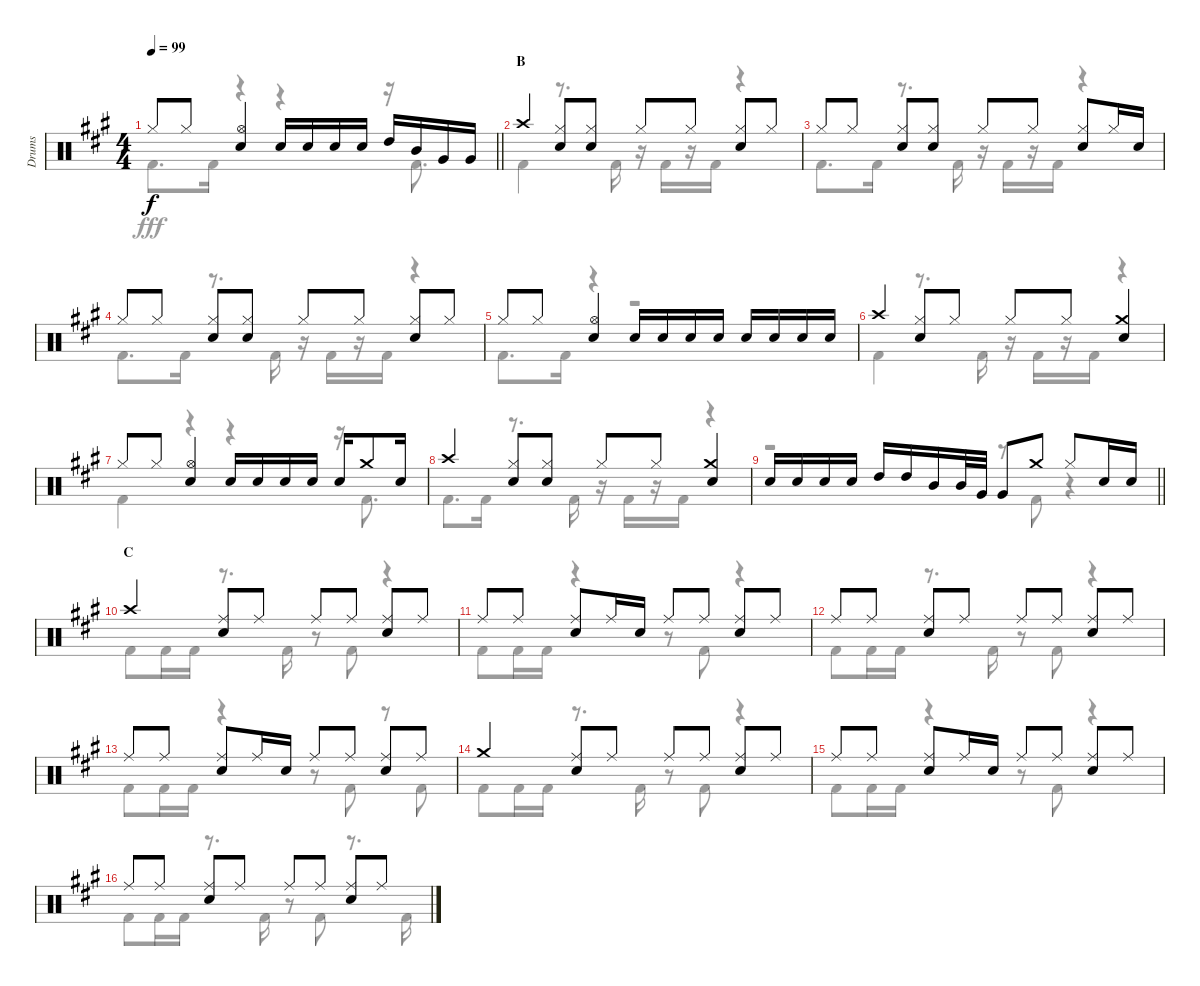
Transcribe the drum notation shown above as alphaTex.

\track ("Drums" "Drums") {instrument percussion}
\staff {score}
\articulation defaults
\voice
\ts (4 4)
\tempo 99
\clef neutral
\barLineRight lightlight
\ks a "Hi-Hat (closed)".8{dy f} "Hi-Hat (closed)".8
("Hi-Hat (open)" "Snare (hit) 2").4 "Snare (hit) 2".16 "Snare (hit) 2".16 "Snare (hit) 2".16 "Snare (hit) 2".16 "High Tom (hit)".16 "Mid Tom (hit)".16 "Very Low Tom (hit)".16 "Very Low Tom (hit)".16 |
\section ("" "B")
"Crash high (hit)".4 ("Hi-Hat (closed)" "Snare (hit) 2").8 ("Hi-Hat (closed)" "Snare (hit) 2").8 "Hi-Hat (closed)".8 "Hi-Hat (closed)".8 ("Hi-Hat (closed)" "Snare (hit) 2").8 "Hi-Hat (closed)".8 |
"Hi-Hat (closed)".8 "Hi-Hat (closed)".8 ("Hi-Hat (closed)" "Snare (hit) 2").8 ("Hi-Hat (closed)" "Snare (hit) 2").8 "Hi-Hat (closed)".8 "Hi-Hat (closed)".8 ("Hi-Hat (closed)" "Snare (hit) 2").8 "Hi-Hat (closed)".16 "Snare (hit) 2".16 |
"Hi-Hat (closed)".8 "Hi-Hat (closed)".8 ("Hi-Hat (closed)" "Snare (hit) 2").8 ("Hi-Hat (closed)" "Snare (hit) 2").8 "Hi-Hat (closed)".8 "Hi-Hat (closed)".8 ("Hi-Hat (closed)" "Snare (hit) 2").8 "Hi-Hat (closed)".8 |
"Hi-Hat (closed)".8 "Hi-Hat (closed)".8 ("Hi-Hat (open)" "Snare (hit) 2").4 "Snare (hit) 2".16 "Snare (hit) 2".16 "Snare (hit) 2".16 "Snare (hit) 2".16 "Snare (hit) 2".16 "Snare (hit) 2".16 "Snare (hit) 2".16 "Snare (hit) 2".16 |
"Crash high (hit)".4 ("Hi-Hat (closed)" "Snare (hit) 2").8 "Hi-Hat (closed)".8 "Hi-Hat (closed)".8 "Hi-Hat (closed)".8 ("Crash medium (hit)" "Snare (hit) 2").4 |
"Hi-Hat (closed)".8 "Hi-Hat (closed)".8 ("Hi-Hat (open)" "Snare (hit) 2").4 "Snare (hit) 2".16 "Snare (hit) 2".16 "Snare (hit) 2".16 "Snare (hit) 2".16 "Snare (hit) 2".16 "Crash medium (hit)".8 "Snare (hit) 2".16 |
"Crash high (hit)".4 ("Hi-Hat (closed)" "Snare (hit) 2").8 ("Hi-Hat (closed)" "Snare (hit) 2").8 "Hi-Hat (closed)".8 "Hi-Hat (closed)".8 ("Crash medium (hit)" "Snare (hit) 2").4 |
\barLineRight lightlight "Snare (hit) 2".16 "Snare (hit) 2".16 "Snare (hit) 2".16 "Snare (hit) 2".16 "High Tom (hit)".16 "High Tom (hit)".16 "Mid Tom (hit)".16 "Mid Tom (hit)".32 "Very Low Tom (hit)".32 "Very Low Tom (hit)".8 "Crash medium (hit)".8 "Hi-Hat (closed)".8 "Snare (hit) 2".16 "Snare (hit) 2".16
|
\section ("" "C")
"Crash high (hit)".4 ("Ride (middle)" "Snare (hit) 2").8 "Ride (middle)".8 "Ride (middle)".8 "Ride (middle)".8 ("Ride (middle)" "Snare (hit) 2").8 "Ride (middle)".8 |
"Ride (middle)".8 "Ride (middle)".8 ("Ride (middle)" "Snare (hit) 2").8 "Ride (middle)".16 "Snare (hit) 2".16 "Ride (middle)".8 "Ride (middle)".8 ("Ride (middle)" "Snare (hit) 2").8 "Ride (middle)".8 |
"Ride (middle)".8 "Ride (middle)".8 ("Ride (middle)" "Snare (hit) 2").8 "Ride (middle)".8 "Ride (middle)".8 "Ride (middle)".8 ("Ride (middle)" "Snare (hit) 2").8 "Ride (middle)".8 |
"Ride (middle)".8 "Ride (middle)".8 ("Ride (middle)" "Snare (hit) 2").8 "Ride (middle)".16 "Snare (hit) 2".16 "Ride (middle)".8 "Ride (middle)".8 ("Ride (middle)" "Snare (hit) 2").8 "Ride (middle)".8 |
"Crash medium (hit)".4 ("Ride (middle)" "Snare (hit) 2").8 "Ride (middle)".8 "Ride (middle)".8 "Ride (middle)".8 ("Ride (middle)" "Snare (hit) 2").8 "Ride (middle)".8 |
"Ride (middle)".8 "Ride (middle)".8 ("Ride (middle)" "Snare (hit) 2").8 "Ride (middle)".16 "Snare (hit) 2".16 "Ride (middle)".8 "Ride (middle)".8 ("Ride (middle)" "Snare (hit) 2").8 "Ride (middle)".8 |
"Ride (middle)".8 "Ride (middle)".8 ("Ride (middle)" "Snare (hit) 2").8 "Ride (middle)".8 "Ride (middle)".8 "Ride (middle)".8 ("Ride (middle)" "Snare (hit) 2").8 "Ride (middle)".8
\voice
\clef neutral
\ottava regular
\simile none
\barLineRight lightlight
\ks a "Kick (hit) 2".8{d dy fff} "Kick (hit) 2".16
r.4 r.4 r.16 "Kick (hit) 2".8{d} |
"Kick (hit) 2".4 r.8{d} "Kick (hit) 2".16 r.16 "Kick (hit) 2".16 r.16 "Kick (hit) 2".16 r.4 |
"Kick (hit) 2".8{d} "Kick (hit) 2".16 r.8{d} "Kick (hit) 2".16 r.16 "Kick (hit) 2".16 r.16 "Kick (hit) 2".16 r.4 |
"Kick (hit) 2".8{d} "Kick (hit) 2".16 r.8{d} "Kick (hit) 2".16 r.16 "Kick (hit) 2".16 r.16 "Kick (hit) 2".16 r.4 |
"Kick (hit) 2".8{d} "Kick (hit) 2".16 r.4 r.2 |
"Kick (hit) 2".4 r.8{d} "Kick (hit) 2".16 r.16 "Kick (hit) 2".16 r.16 "Kick (hit) 2".16 r.4 |
"Kick (hit) 2".4 r.4 r.4 r.16 "Kick (hit) 2".8{d} |
"Kick (hit) 2".8{d} "Kick (hit) 2".16 r.8{d} "Kick (hit) 2".16 r.16 "Kick (hit) 2".16 r.16 "Kick (hit) 2".16 r.4 |
\barLineRight lightlight
r.2 r.8 "Kick (hit) 2".8 r.4 |
"Kick (hit) 2".8 "Kick (hit) 2".16 "Kick (hit) 2".16 r.8{d} "Kick (hit) 2".16 r.8 "Kick (hit) 2".8 r.4 |
"Kick (hit) 2".8 "Kick (hit) 2".16 "Kick (hit) 2".16 r.4 r.8 "Kick (hit) 2".8 r.4 |
"Kick (hit) 2".8 "Kick (hit) 2".16 "Kick (hit) 2".16 r.8{d} "Kick (hit) 2".16 r.8 "Kick (hit) 2".8 r.4 |
"Kick (hit) 2".8 "Kick (hit) 2".16 "Kick (hit) 2".16 r.4 r.8 "Kick (hit) 2".8 r.8 "Kick (hit) 2".8 |
"Kick (hit) 2".8 "Kick (hit) 2".16 "Kick (hit) 2".16 r.8{d} "Kick (hit) 2".16 r.8 "Kick (hit) 2".8 r.4 |
"Kick (hit) 2".8 "Kick (hit) 2".16 "Kick (hit) 2".16 r.4 r.8 "Kick (hit) 2".8 r.4 |
"Kick (hit) 2".8 "Kick (hit) 2".16 "Kick (hit) 2".16 r.8{d} "Kick (hit) 2".16 r.8 "Kick (hit) 2".8 r.8{d} "Kick (hit) 2".16
